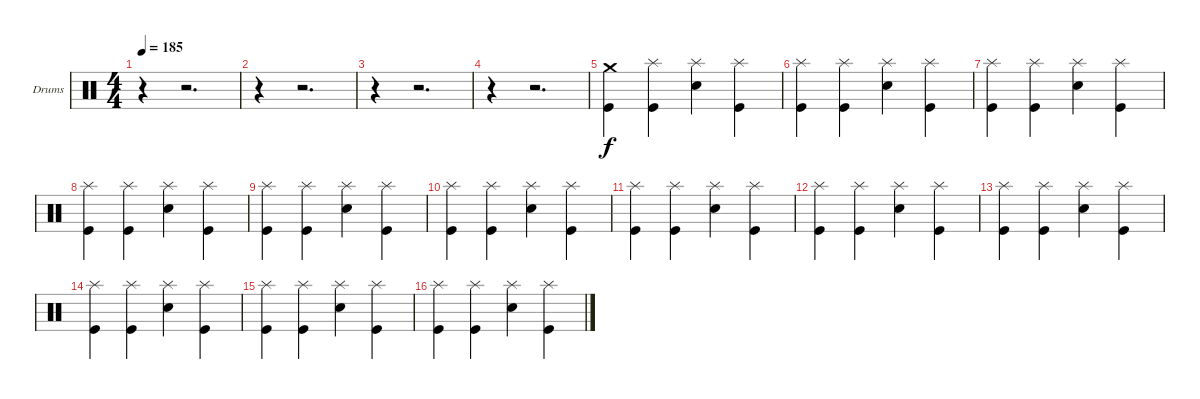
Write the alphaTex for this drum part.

\defaultSystemsLayout 4
\bracketExtendMode groupsimilarinstruments
\firstSystemTrackNameOrientation horizontal
\otherSystemsTrackNameOrientation horizontal
\track ("Chuck Comeau" "Drums") {instrument percussion}
\staff {score}
\articulation defaults
\ts (4 4)
\tempo 185
\clef neutral
\scale
0.474178
\ks c
r.4{dy f} r.2{d} |
\scale
0.262911 r.4 r.2{d} |
\scale
0.262911 r.4 r.2{d} |
\scale
0.333333 r.4 r.2{d} |
\scale
0.333333 ("Crash medium (hit)" "Kick (hit)").4 ("Splash (hit)" "Kick (hit)").4 ("Splash (hit)" "Snare (hit) 2").4 ("Splash (hit)" "Kick (hit)").4 |
\scale
0.333333 ("Splash (hit)" "Kick (hit)").4 ("Splash (hit)" "Kick (hit)").4 ("Splash (hit)" "Snare (hit) 2").4 ("Splash (hit)" "Kick (hit)").4 |
\scale
0.333333 ("Splash (hit)" "Kick (hit)").4 ("Splash (hit)" "Kick (hit)").4 ("Splash (hit)" "Snare (hit) 2").4 ("Splash (hit)" "Kick (hit)").4 |
\scale
0.333333 ("Splash (hit)" "Kick (hit)").4 ("Splash (hit)" "Kick (hit)").4 ("Splash (hit)" "Snare (hit) 2").4 ("Splash (hit)" "Kick (hit)").4 |
\scale
0.333333 ("Splash (hit)" "Kick (hit)").4 ("Splash (hit)" "Kick (hit)").4 ("Splash (hit)" "Snare (hit) 2").4 ("Splash (hit)" "Kick (hit)").4 |
\scale
0.333333 ("Splash (hit)" "Kick (hit)").4 ("Splash (hit)" "Kick (hit)").4 ("Splash (hit)" "Snare (hit) 2").4 ("Splash (hit)" "Kick (hit)").4 |
\scale
0.333333 ("Splash (hit)" "Kick (hit)").4 ("Splash (hit)" "Kick (hit)").4 ("Splash (hit)" "Snare (hit) 2").4 ("Splash (hit)" "Kick (hit)").4 |
\scale
0.333333 ("Splash (hit)" "Kick (hit)").4 ("Splash (hit)" "Kick (hit)").4 ("Splash (hit)" "Snare (hit) 2").4 ("Splash (hit)" "Kick (hit)").4 |
\scale
0.333333 ("Splash (hit)" "Kick (hit)").4 ("Splash (hit)" "Kick (hit)").4 ("Splash (hit)" "Snare (hit) 2").4 ("Splash (hit)" "Kick (hit)").4 |
\scale
0.333333 ("Splash (hit)" "Kick (hit)").4 ("Splash (hit)" "Kick (hit)").4 ("Splash (hit)" "Snare (hit) 2").4 ("Splash (hit)" "Kick (hit)").4 |
\scale
0.333333 ("Splash (hit)" "Kick (hit)").4 ("Splash (hit)" "Kick (hit)").4 ("Splash (hit)" "Snare (hit) 2").4 ("Splash (hit)" "Kick (hit)").4 |
\scale
0.333333 ("Splash (hit)" "Kick (hit)").4 ("Splash (hit)" "Kick (hit)").4 ("Splash (hit)" "Snare (hit) 2").4 ("Splash (hit)" "Kick (hit)").4
